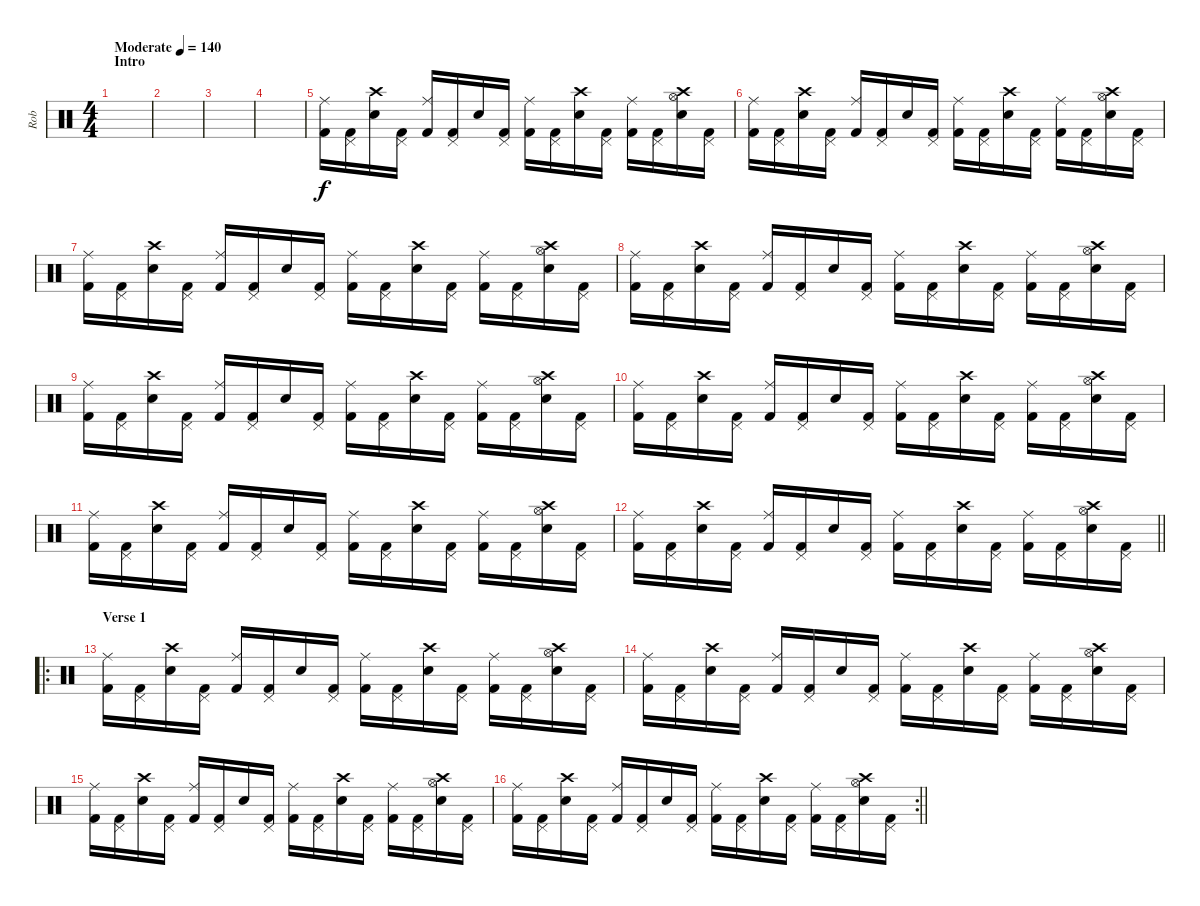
\track ("Rob" "Rob") {instrument percussion}
\staff {score}
\articulation defaults
\ts (4 4)
\section ("" "Intro")
\tempo (140 "Moderate")
\clef neutral
\ks c
|
|
|
|
("Ride (middle)" "Kick (hit) 2").16 ("Pedal Hi-Hat (hit)" "Kick (hit) 2").16 ("Crash high (hit)" "Snare (hit) 2").16 ("Pedal Hi-Hat (hit)" "Kick (hit) 2").16 ("Ride (middle)" "Kick (hit) 2").16 ("Pedal Hi-Hat (hit)" "Kick (hit) 2").16 "Snare (hit) 2".16 ("Pedal Hi-Hat (hit)" "Kick (hit) 2").16 ("Ride (middle)" "Kick (hit) 2").16 ("Pedal Hi-Hat (hit)" "Kick (hit) 2").16 ("Crash high (hit)" "Snare (hit) 2").16 ("Pedal Hi-Hat (hit)" "Kick (hit) 2").16 ("Ride (middle)" "Kick (hit) 2").16 ("Pedal Hi-Hat (hit)" "Kick (hit) 2").16 ("Crash high (hit)" "Hi-Hat (open)" "Snare (hit) 2").16 ("Pedal Hi-Hat (hit)" "Kick (hit) 2").16 |
("Ride (middle)" "Kick (hit) 2").16 ("Pedal Hi-Hat (hit)" "Kick (hit) 2").16 ("Crash high (hit)" "Snare (hit) 2").16 ("Pedal Hi-Hat (hit)" "Kick (hit) 2").16 ("Ride (middle)" "Kick (hit) 2").16 ("Pedal Hi-Hat (hit)" "Kick (hit) 2").16 "Snare (hit) 2".16 ("Pedal Hi-Hat (hit)" "Kick (hit) 2").16 ("Ride (middle)" "Kick (hit) 2").16 ("Pedal Hi-Hat (hit)" "Kick (hit) 2").16 ("Crash high (hit)" "Snare (hit) 2").16 ("Pedal Hi-Hat (hit)" "Kick (hit) 2").16 ("Ride (middle)" "Kick (hit) 2").16 ("Pedal Hi-Hat (hit)" "Kick (hit) 2").16 ("Crash high (hit)" "Hi-Hat (open)" "Snare (hit) 2").16 ("Pedal Hi-Hat (hit)" "Kick (hit) 2").16 |
("Ride (middle)" "Kick (hit) 2").16 ("Pedal Hi-Hat (hit)" "Kick (hit) 2").16 ("Crash high (hit)" "Snare (hit) 2").16 ("Pedal Hi-Hat (hit)" "Kick (hit) 2").16 ("Ride (middle)" "Kick (hit) 2").16 ("Pedal Hi-Hat (hit)" "Kick (hit) 2").16 "Snare (hit) 2".16 ("Pedal Hi-Hat (hit)" "Kick (hit) 2").16 ("Ride (middle)" "Kick (hit) 2").16 ("Pedal Hi-Hat (hit)" "Kick (hit) 2").16 ("Crash high (hit)" "Snare (hit) 2").16 ("Pedal Hi-Hat (hit)" "Kick (hit) 2").16 ("Ride (middle)" "Kick (hit) 2").16 ("Pedal Hi-Hat (hit)" "Kick (hit) 2").16 ("Crash high (hit)" "Hi-Hat (open)" "Snare (hit) 2").16 ("Pedal Hi-Hat (hit)" "Kick (hit) 2").16 |
("Ride (middle)" "Kick (hit) 2").16 ("Pedal Hi-Hat (hit)" "Kick (hit) 2").16 ("Crash high (hit)" "Snare (hit) 2").16 ("Pedal Hi-Hat (hit)" "Kick (hit) 2").16 ("Ride (middle)" "Kick (hit) 2").16 ("Pedal Hi-Hat (hit)" "Kick (hit) 2").16 "Snare (hit) 2".16 ("Pedal Hi-Hat (hit)" "Kick (hit) 2").16 ("Ride (middle)" "Kick (hit) 2").16 ("Pedal Hi-Hat (hit)" "Kick (hit) 2").16 ("Crash high (hit)" "Snare (hit) 2").16 ("Pedal Hi-Hat (hit)" "Kick (hit) 2").16 ("Ride (middle)" "Kick (hit) 2").16 ("Pedal Hi-Hat (hit)" "Kick (hit) 2").16 ("Crash high (hit)" "Hi-Hat (open)" "Snare (hit) 2").16 ("Pedal Hi-Hat (hit)" "Kick (hit) 2").16 |
("Ride (middle)" "Kick (hit) 2").16 ("Pedal Hi-Hat (hit)" "Kick (hit) 2").16 ("Crash high (hit)" "Snare (hit) 2").16 ("Pedal Hi-Hat (hit)" "Kick (hit) 2").16 ("Ride (middle)" "Kick (hit) 2").16 ("Pedal Hi-Hat (hit)" "Kick (hit) 2").16 "Snare (hit) 2".16 ("Pedal Hi-Hat (hit)" "Kick (hit) 2").16 ("Ride (middle)" "Kick (hit) 2").16 ("Pedal Hi-Hat (hit)" "Kick (hit) 2").16 ("Crash high (hit)" "Snare (hit) 2").16 ("Pedal Hi-Hat (hit)" "Kick (hit) 2").16 ("Ride (middle)" "Kick (hit) 2").16 ("Pedal Hi-Hat (hit)" "Kick (hit) 2").16 ("Crash high (hit)" "Hi-Hat (open)" "Snare (hit) 2").16 ("Pedal Hi-Hat (hit)" "Kick (hit) 2").16 |
("Ride (middle)" "Kick (hit) 2").16 ("Pedal Hi-Hat (hit)" "Kick (hit) 2").16 ("Crash high (hit)" "Snare (hit) 2").16 ("Pedal Hi-Hat (hit)" "Kick (hit) 2").16 ("Ride (middle)" "Kick (hit) 2").16 ("Pedal Hi-Hat (hit)" "Kick (hit) 2").16 "Snare (hit) 2".16 ("Pedal Hi-Hat (hit)" "Kick (hit) 2").16 ("Ride (middle)" "Kick (hit) 2").16 ("Pedal Hi-Hat (hit)" "Kick (hit) 2").16 ("Crash high (hit)" "Snare (hit) 2").16 ("Pedal Hi-Hat (hit)" "Kick (hit) 2").16 ("Ride (middle)" "Kick (hit) 2").16 ("Pedal Hi-Hat (hit)" "Kick (hit) 2").16 ("Crash high (hit)" "Hi-Hat (open)" "Snare (hit) 2").16 ("Pedal Hi-Hat (hit)" "Kick (hit) 2").16 |
("Ride (middle)" "Kick (hit) 2").16 ("Pedal Hi-Hat (hit)" "Kick (hit) 2").16 ("Crash high (hit)" "Snare (hit) 2").16 ("Pedal Hi-Hat (hit)" "Kick (hit) 2").16 ("Ride (middle)" "Kick (hit) 2").16 ("Pedal Hi-Hat (hit)" "Kick (hit) 2").16 "Snare (hit) 2".16 ("Pedal Hi-Hat (hit)" "Kick (hit) 2").16 ("Ride (middle)" "Kick (hit) 2").16 ("Pedal Hi-Hat (hit)" "Kick (hit) 2").16 ("Crash high (hit)" "Snare (hit) 2").16 ("Pedal Hi-Hat (hit)" "Kick (hit) 2").16 ("Ride (middle)" "Kick (hit) 2").16 ("Pedal Hi-Hat (hit)" "Kick (hit) 2").16 ("Crash high (hit)" "Hi-Hat (open)" "Snare (hit) 2").16 ("Pedal Hi-Hat (hit)" "Kick (hit) 2").16 |
\barLineRight lightlight
("Ride (middle)" "Kick (hit) 2").16 ("Pedal Hi-Hat (hit)" "Kick (hit) 2").16 ("Crash high (hit)" "Snare (hit) 2").16 ("Pedal Hi-Hat (hit)" "Kick (hit) 2").16 ("Ride (middle)" "Kick (hit) 2").16 ("Pedal Hi-Hat (hit)" "Kick (hit) 2").16 "Snare (hit) 2".16 ("Pedal Hi-Hat (hit)" "Kick (hit) 2").16 ("Ride (middle)" "Kick (hit) 2").16 ("Pedal Hi-Hat (hit)" "Kick (hit) 2").16 ("Crash high (hit)" "Snare (hit) 2").16 ("Pedal Hi-Hat (hit)" "Kick (hit) 2").16 ("Ride (middle)" "Kick (hit) 2").16 ("Pedal Hi-Hat (hit)" "Kick (hit) 2").16 ("Crash high (hit)" "Hi-Hat (open)" "Snare (hit) 2").16 ("Pedal Hi-Hat (hit)" "Kick (hit) 2").16 |
\ro
\section ("" "Verse 1")
("Ride (middle)" "Kick (hit) 2").16 ("Pedal Hi-Hat (hit)" "Kick (hit) 2").16 ("Crash high (hit)" "Snare (hit) 2").16 ("Pedal Hi-Hat (hit)" "Kick (hit) 2").16 ("Ride (middle)" "Kick (hit) 2").16 ("Pedal Hi-Hat (hit)" "Kick (hit) 2").16 "Snare (hit) 2".16 ("Pedal Hi-Hat (hit)" "Kick (hit) 2").16 ("Ride (middle)" "Kick (hit) 2").16 ("Pedal Hi-Hat (hit)" "Kick (hit) 2").16 ("Crash high (hit)" "Snare (hit) 2").16 ("Pedal Hi-Hat (hit)" "Kick (hit) 2").16 ("Ride (middle)" "Kick (hit) 2").16 ("Pedal Hi-Hat (hit)" "Kick (hit) 2").16 ("Crash high (hit)" "Hi-Hat (open)" "Snare (hit) 2").16 ("Pedal Hi-Hat (hit)" "Kick (hit) 2").16 |
("Ride (middle)" "Kick (hit) 2").16 ("Pedal Hi-Hat (hit)" "Kick (hit) 2").16 ("Crash high (hit)" "Snare (hit) 2").16 ("Pedal Hi-Hat (hit)" "Kick (hit) 2").16 ("Ride (middle)" "Kick (hit) 2").16 ("Pedal Hi-Hat (hit)" "Kick (hit) 2").16 "Snare (hit) 2".16 ("Pedal Hi-Hat (hit)" "Kick (hit) 2").16 ("Ride (middle)" "Kick (hit) 2").16 ("Pedal Hi-Hat (hit)" "Kick (hit) 2").16 ("Crash high (hit)" "Snare (hit) 2").16 ("Pedal Hi-Hat (hit)" "Kick (hit) 2").16 ("Ride (middle)" "Kick (hit) 2").16 ("Pedal Hi-Hat (hit)" "Kick (hit) 2").16 ("Crash high (hit)" "Hi-Hat (open)" "Snare (hit) 2").16 ("Pedal Hi-Hat (hit)" "Kick (hit) 2").16 |
("Ride (middle)" "Kick (hit) 2").16 ("Pedal Hi-Hat (hit)" "Kick (hit) 2").16 ("Crash high (hit)" "Snare (hit) 2").16 ("Pedal Hi-Hat (hit)" "Kick (hit) 2").16 ("Ride (middle)" "Kick (hit) 2").16 ("Pedal Hi-Hat (hit)" "Kick (hit) 2").16 "Snare (hit) 2".16 ("Pedal Hi-Hat (hit)" "Kick (hit) 2").16 ("Ride (middle)" "Kick (hit) 2").16 ("Pedal Hi-Hat (hit)" "Kick (hit) 2").16 ("Crash high (hit)" "Snare (hit) 2").16 ("Pedal Hi-Hat (hit)" "Kick (hit) 2").16 ("Ride (middle)" "Kick (hit) 2").16 ("Pedal Hi-Hat (hit)" "Kick (hit) 2").16 ("Crash high (hit)" "Hi-Hat (open)" "Snare (hit) 2").16 ("Pedal Hi-Hat (hit)" "Kick (hit) 2").16 |
\rc 2
\barLineRight lightlight
("Ride (middle)" "Kick (hit) 2").16 ("Pedal Hi-Hat (hit)" "Kick (hit) 2").16 ("Crash high (hit)" "Snare (hit) 2").16 ("Pedal Hi-Hat (hit)" "Kick (hit) 2").16 ("Ride (middle)" "Kick (hit) 2").16 ("Pedal Hi-Hat (hit)" "Kick (hit) 2").16 "Snare (hit) 2".16 ("Pedal Hi-Hat (hit)" "Kick (hit) 2").16 ("Ride (middle)" "Kick (hit) 2").16 ("Pedal Hi-Hat (hit)" "Kick (hit) 2").16 ("Crash high (hit)" "Snare (hit) 2").16 ("Pedal Hi-Hat (hit)" "Kick (hit) 2").16 ("Ride (middle)" "Kick (hit) 2").16 ("Pedal Hi-Hat (hit)" "Kick (hit) 2").16 ("Crash high (hit)" "Hi-Hat (open)" "Snare (hit) 2").16 ("Pedal Hi-Hat (hit)" "Kick (hit) 2").16
